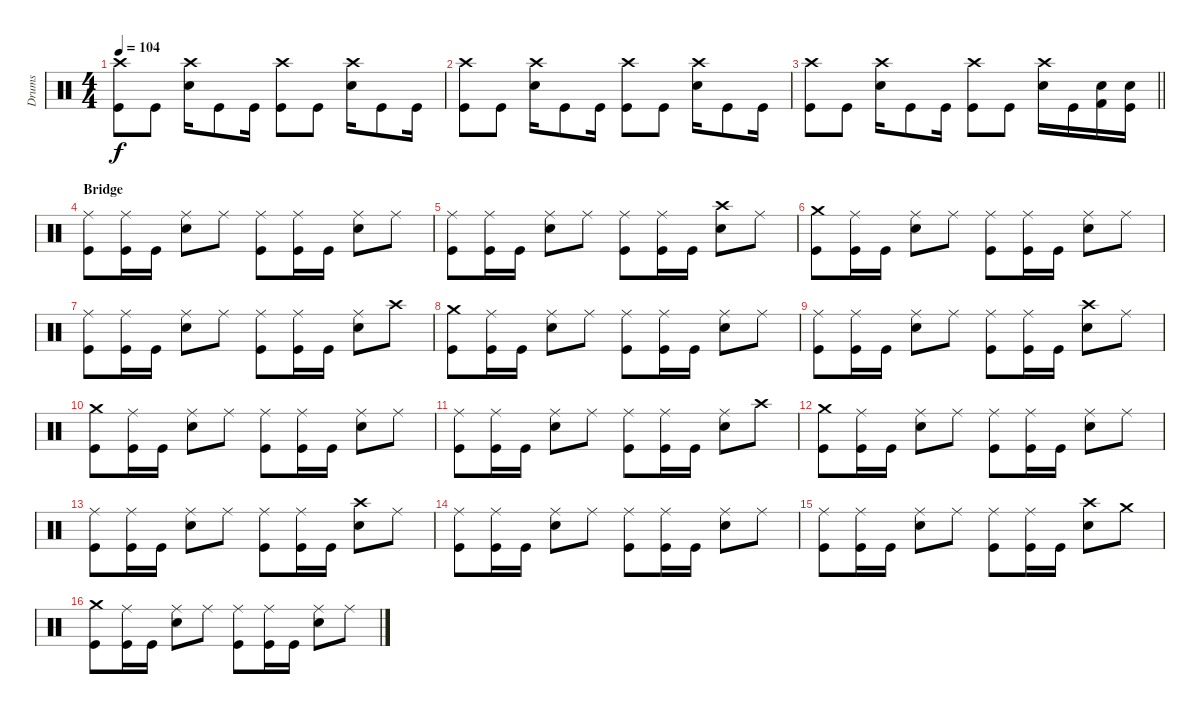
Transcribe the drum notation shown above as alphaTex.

\track ("Drums" "Drums") {instrument percussion}
\staff {score}
\articulation defaults
\ts (4 4)
\tempo 104
\clef neutral
\ks c
("Crash high (hit)" "Kick (hit)").8{dy f} "Kick (hit)".8 ("Crash high (hit)" "Electric Snare (hit)").16 "Kick (hit)".8 "Kick (hit)".16 ("Crash high (hit)" "Kick (hit)").8 "Kick (hit)".8 ("Crash high (hit)" "Electric Snare (hit)").16 "Kick (hit)".8 "Kick (hit)".16 |
("Crash high (hit)" "Kick (hit)").8 "Kick (hit)".8 ("Crash high (hit)" "Electric Snare (hit)").16 "Kick (hit)".8 "Kick (hit)".16 ("Crash high (hit)" "Kick (hit)").8 "Kick (hit)".8 ("Crash high (hit)" "Electric Snare (hit)").16 "Kick (hit)".8 "Kick (hit)".16 |
\barLineRight lightlight
("Crash high (hit)" "Kick (hit)").8 "Kick (hit)".8 ("Crash high (hit)" "Electric Snare (hit)").16 "Kick (hit)".8 "Kick (hit)".16 ("Crash high (hit)" "Kick (hit)").8 "Kick (hit)".8 ("Crash high (hit)" "Electric Snare (hit)").16 "Kick (hit)".16 ("Electric Snare (hit)" "Kick (hit) 2").16 ("Electric Snare (hit)" "Kick (hit)").16 |
\section ("" "Bridge")
("Ride (middle)" "Kick (hit)").8 ("Ride (middle)" "Kick (hit)").16 "Kick (hit)".16 ("Ride (middle)" "Electric Snare (hit)").8 "Ride (middle)".8 ("Ride (middle)" "Kick (hit)").8 ("Ride (middle)" "Kick (hit)").16 "Kick (hit)".16 ("Ride (middle)" "Electric Snare (hit)").8 "Ride (middle)".8 |
("Ride (middle)" "Kick (hit)").8 ("Ride (middle)" "Kick (hit)").16 "Kick (hit)".16 ("Ride (middle)" "Electric Snare (hit)").8 "Ride (middle)".8 ("Ride (middle)" "Kick (hit)").8 ("Ride (middle)" "Kick (hit)").16 "Kick (hit)".16 ("Crash high (hit)" "Electric Snare (hit)").8 "Ride (middle)".8 |
("Crash medium (hit)" "Kick (hit)").8 ("Ride (middle)" "Kick (hit)").16 "Kick (hit)".16 ("Ride (middle)" "Electric Snare (hit)").8 "Ride (middle)".8 ("Ride (middle)" "Kick (hit)").8 ("Ride (middle)" "Kick (hit)").16 "Kick (hit)".16 ("Ride (middle)" "Electric Snare (hit)").8 "Ride (middle)".8 |
("Ride (middle)" "Kick (hit)").8 ("Ride (middle)" "Kick (hit)").16 "Kick (hit)".16 ("Ride (middle)" "Electric Snare (hit)").8 "Ride (middle)".8 ("Ride (middle)" "Kick (hit)").8 ("Ride (middle)" "Kick (hit)").16 "Kick (hit)".16 ("Ride (middle)" "Electric Snare (hit)").8 "Crash high (hit)".8 |
("Crash medium (hit)" "Kick (hit)").8 ("Ride (middle)" "Kick (hit)").16 "Kick (hit)".16 ("Ride (middle)" "Electric Snare (hit)").8 "Ride (middle)".8 ("Ride (middle)" "Kick (hit)").8 ("Ride (middle)" "Kick (hit)").16 "Kick (hit)".16 ("Ride (middle)" "Electric Snare (hit)").8 "Ride (middle)".8 |
("Ride (middle)" "Kick (hit)").8 ("Ride (middle)" "Kick (hit)").16 "Kick (hit)".16 ("Ride (middle)" "Electric Snare (hit)").8 "Ride (middle)".8 ("Ride (middle)" "Kick (hit)").8 ("Ride (middle)" "Kick (hit)").16 "Kick (hit)".16 ("Crash high (hit)" "Electric Snare (hit)").8 "Ride (middle)".8 |
("Crash medium (hit)" "Kick (hit)").8 ("Ride (middle)" "Kick (hit)").16 "Kick (hit)".16 ("Ride (middle)" "Electric Snare (hit)").8 "Ride (middle)".8 ("Ride (middle)" "Kick (hit)").8 ("Ride (middle)" "Kick (hit)").16 "Kick (hit)".16 ("Ride (middle)" "Electric Snare (hit)").8 "Ride (middle)".8 |
("Ride (middle)" "Kick (hit)").8 ("Ride (middle)" "Kick (hit)").16 "Kick (hit)".16 ("Ride (middle)" "Electric Snare (hit)").8 "Ride (middle)".8 ("Ride (middle)" "Kick (hit)").8 ("Ride (middle)" "Kick (hit)").16 "Kick (hit)".16 ("Ride (middle)" "Electric Snare (hit)").8 "Crash high (hit)".8 |
("Crash medium (hit)" "Kick (hit)").8 ("Ride (middle)" "Kick (hit)").16 "Kick (hit)".16 ("Ride (middle)" "Electric Snare (hit)").8 "Ride (middle)".8 ("Ride (middle)" "Kick (hit)").8 ("Ride (middle)" "Kick (hit)").16 "Kick (hit)".16 ("Ride (middle)" "Electric Snare (hit)").8 "Ride (middle)".8 |
("Ride (middle)" "Kick (hit)").8 ("Ride (middle)" "Kick (hit)").16 "Kick (hit)".16 ("Ride (middle)" "Electric Snare (hit)").8 "Ride (middle)".8 ("Ride (middle)" "Kick (hit)").8 ("Ride (middle)" "Kick (hit)").16 "Kick (hit)".16 ("Crash high (hit)" "Electric Snare (hit)").8 "Ride (middle)".8 |
("Ride (middle)" "Kick (hit)").8 ("Ride (middle)" "Kick (hit)").16 "Kick (hit)".16 ("Ride (middle)" "Electric Snare (hit)").8 "Ride (middle)".8 ("Ride (middle)" "Kick (hit)").8 ("Ride (middle)" "Kick (hit)").16 "Kick (hit)".16 ("Ride (middle)" "Electric Snare (hit)").8 "Ride (middle)".8 |
("Ride (middle)" "Kick (hit)").8 ("Ride (middle)" "Kick (hit)").16 "Kick (hit)".16 ("Ride (middle)" "Electric Snare (hit)").8 "Ride (middle)".8 ("Ride (middle)" "Kick (hit)").8 ("Ride (middle)" "Kick (hit)").16 "Kick (hit)".16 ("Crash high (hit)" "Electric Snare (hit)").8 "Crash medium (hit)".8 |
("Crash medium (hit)" "Kick (hit)").8 ("Ride (middle)" "Kick (hit)").16 "Kick (hit)".16 ("Ride (middle)" "Electric Snare (hit)").8 "Ride (middle)".8 ("Ride (middle)" "Kick (hit)").8 ("Ride (middle)" "Kick (hit)").16 "Kick (hit)".16 ("Ride (middle)" "Electric Snare (hit)").8 "Ride (middle)".8
